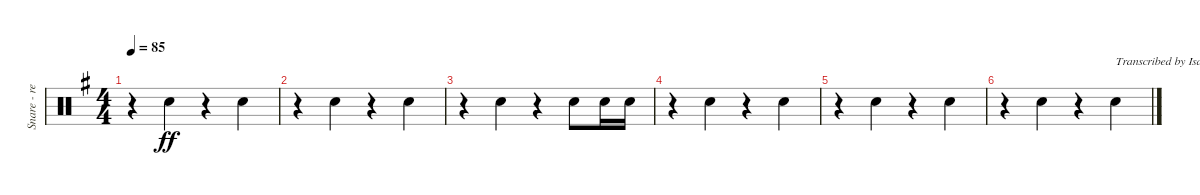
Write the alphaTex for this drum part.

\track ("Snare - reverb" "Snare - re") {instrument percussion}
\staff {score}
\articulation defaults
\ts (4 4)
\tempo 85
\clef neutral
\ks g
r.4{dy ff beam merge} "Snare (hit) 2".4 r.4{beam merge} "Snare (hit) 2".4 |
r.4{beam merge} "Snare (hit) 2".4 r.4{beam merge} "Snare (hit) 2".4 |
r.4{beam merge} "Snare (hit) 2".4 r.4 "Snare (hit) 2".8 "Snare (hit) 2".16 "Snare (hit) 2".16 |
r.4{beam merge} "Snare (hit) 2".4 r.4{beam merge} "Snare (hit) 2".4 |
r.4{beam merge} "Snare (hit) 2".4 r.4{beam merge} "Snare (hit) 2".4 |
r.4{beam merge} "Snare (hit) 2".4 r.4{beam merge} "Snare (hit) 2".4{txt "Transcribed by Isaias Garcia (TexasFury)"}
